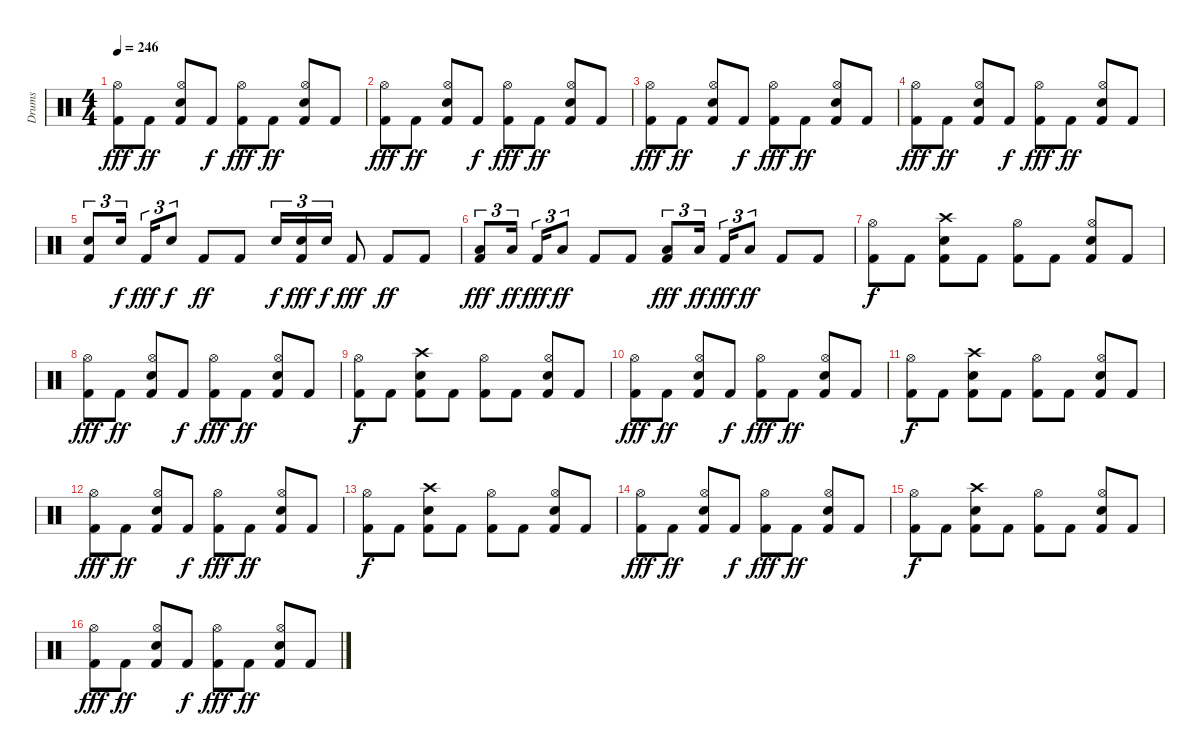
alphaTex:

\track ("Drums" "Drums") {instrument percussion}
\staff {score}
\articulation defaults
\ts (4 4)
\tempo 246
\clef neutral
\ks c
("Kick (hit) 2" "Hi-Hat (open)").8{dy fff volume 12} "Kick (hit) 2".8{dy ff} ("Kick (hit) 2" "Snare (hit) 2" "Hi-Hat (open)").8 "Kick (hit) 2".8{dy f} ("Kick (hit) 2" "Hi-Hat (open)").8{dy fff} "Kick (hit) 2".8{dy ff} ("Kick (hit) 2" "Snare (hit) 2" "Hi-Hat (open)").8 "Kick (hit) 2".8 |
("Kick (hit) 2" "Hi-Hat (open)").8{dy fff volume 12} "Kick (hit) 2".8{dy ff} ("Kick (hit) 2" "Snare (hit) 2" "Hi-Hat (open)").8 "Kick (hit) 2".8{dy f} ("Kick (hit) 2" "Hi-Hat (open)").8{dy fff} "Kick (hit) 2".8{dy ff} ("Kick (hit) 2" "Snare (hit) 2" "Hi-Hat (open)").8 "Kick (hit) 2".8 |
("Kick (hit) 2" "Hi-Hat (open)").8{dy fff volume 12} "Kick (hit) 2".8{dy ff} ("Kick (hit) 2" "Snare (hit) 2" "Hi-Hat (open)").8 "Kick (hit) 2".8{dy f} ("Kick (hit) 2" "Hi-Hat (open)").8{dy fff} "Kick (hit) 2".8{dy ff} ("Kick (hit) 2" "Snare (hit) 2" "Hi-Hat (open)").8 "Kick (hit) 2".8 |
("Kick (hit) 2" "Hi-Hat (open)").8{dy fff volume 12} "Kick (hit) 2".8{dy ff} ("Kick (hit) 2" "Snare (hit) 2" "Hi-Hat (open)").8 "Kick (hit) 2".8{dy f} ("Kick (hit) 2" "Hi-Hat (open)").8{dy fff} "Kick (hit) 2".8{dy ff} ("Kick (hit) 2" "Snare (hit) 2" "Hi-Hat (open)").8 "Kick (hit) 2".8 |
("Kick (hit) 2" "Snare (hit) 2").8{tu (3 2) volume 12} "Snare (hit) 2".16{tu (3 2) dy f} "Kick (hit) 2".16{tu (3 2) dy fff} "Snare (hit) 2".8{tu (3 2) dy f} "Kick (hit) 2".8{dy ff} "Kick (hit) 2".8 "Snare (hit) 2".16{tu (3 2) dy f} ("Kick (hit) 2" "Snare (hit) 2").16{tu (3 2) dy fff} "Snare (hit) 2".16{tu (3 2) dy f} "Kick (hit) 2".8{dy fff} "Kick (hit) 2".8{dy ff} "Kick (hit) 2".8 |
("Kick (hit) 2" "Low Tom (hit)").8{tu (3 2) dy fff volume 12} "Low Tom (hit)".16{tu (3 2) dy ff} "Kick (hit) 2".16{tu (3 2) dy fff} "Low Tom (hit)".8{tu (3 2) dy ff} "Kick (hit) 2".8 "Kick (hit) 2".8 ("Kick (hit) 2" "Low Floor Tom (hit)").8{tu (3 2) dy fff} "Low Floor Tom (hit)".16{tu (3 2) dy ff} "Kick (hit) 2".16{tu (3 2) dy fff} "Low Floor Tom (hit)".8{tu (3 2) dy ff} "Kick (hit) 2".8 "Kick (hit) 2".8 |
("Kick (hit) 2" "Hi-Hat (open)").8{dy f volume 12} "Kick (hit) 2".8 ("Kick (hit) 2" "Snare (hit) 2" "Crash high (hit)").8 "Kick (hit) 2".8 ("Kick (hit) 2" "Hi-Hat (open)").8 "Kick (hit) 2".8 ("Kick (hit) 2" "Snare (hit) 2" "Hi-Hat (open)").8 "Kick (hit) 2".8 |
("Kick (hit) 2" "Hi-Hat (open)").8{dy fff volume 12} "Kick (hit) 2".8{dy ff} ("Kick (hit) 2" "Snare (hit) 2" "Hi-Hat (open)").8 "Kick (hit) 2".8{dy f} ("Kick (hit) 2" "Hi-Hat (open)").8{dy fff} "Kick (hit) 2".8{dy ff} ("Kick (hit) 2" "Snare (hit) 2" "Hi-Hat (open)").8 "Kick (hit) 2".8 |
("Kick (hit) 2" "Hi-Hat (open)").8{dy f volume 12} "Kick (hit) 2".8 ("Kick (hit) 2" "Snare (hit) 2" "Crash high (hit)").8 "Kick (hit) 2".8 ("Kick (hit) 2" "Hi-Hat (open)").8 "Kick (hit) 2".8 ("Kick (hit) 2" "Snare (hit) 2" "Hi-Hat (open)").8 "Kick (hit) 2".8 |
("Kick (hit) 2" "Hi-Hat (open)").8{dy fff volume 12} "Kick (hit) 2".8{dy ff} ("Kick (hit) 2" "Snare (hit) 2" "Hi-Hat (open)").8 "Kick (hit) 2".8{dy f} ("Kick (hit) 2" "Hi-Hat (open)").8{dy fff} "Kick (hit) 2".8{dy ff} ("Kick (hit) 2" "Snare (hit) 2" "Hi-Hat (open)").8 "Kick (hit) 2".8 |
("Kick (hit) 2" "Hi-Hat (open)").8{dy f volume 12} "Kick (hit) 2".8 ("Kick (hit) 2" "Snare (hit) 2" "Crash high (hit)").8 "Kick (hit) 2".8 ("Kick (hit) 2" "Hi-Hat (open)").8 "Kick (hit) 2".8 ("Kick (hit) 2" "Snare (hit) 2" "Hi-Hat (open)").8 "Kick (hit) 2".8 |
("Kick (hit) 2" "Hi-Hat (open)").8{dy fff volume 12} "Kick (hit) 2".8{dy ff} ("Kick (hit) 2" "Snare (hit) 2" "Hi-Hat (open)").8 "Kick (hit) 2".8{dy f} ("Kick (hit) 2" "Hi-Hat (open)").8{dy fff} "Kick (hit) 2".8{dy ff} ("Kick (hit) 2" "Snare (hit) 2" "Hi-Hat (open)").8 "Kick (hit) 2".8 |
("Kick (hit) 2" "Hi-Hat (open)").8{dy f volume 12} "Kick (hit) 2".8 ("Kick (hit) 2" "Snare (hit) 2" "Crash high (hit)").8 "Kick (hit) 2".8 ("Kick (hit) 2" "Hi-Hat (open)").8 "Kick (hit) 2".8 ("Kick (hit) 2" "Snare (hit) 2" "Hi-Hat (open)").8 "Kick (hit) 2".8 |
("Kick (hit) 2" "Hi-Hat (open)").8{dy fff volume 12} "Kick (hit) 2".8{dy ff} ("Kick (hit) 2" "Snare (hit) 2" "Hi-Hat (open)").8 "Kick (hit) 2".8{dy f} ("Kick (hit) 2" "Hi-Hat (open)").8{dy fff} "Kick (hit) 2".8{dy ff} ("Kick (hit) 2" "Snare (hit) 2" "Hi-Hat (open)").8 "Kick (hit) 2".8 |
("Kick (hit) 2" "Hi-Hat (open)").8{dy f volume 12} "Kick (hit) 2".8 ("Kick (hit) 2" "Snare (hit) 2" "Crash high (hit)").8 "Kick (hit) 2".8 ("Kick (hit) 2" "Hi-Hat (open)").8 "Kick (hit) 2".8 ("Kick (hit) 2" "Snare (hit) 2" "Hi-Hat (open)").8 "Kick (hit) 2".8 |
("Kick (hit) 2" "Hi-Hat (open)").8{dy fff volume 12} "Kick (hit) 2".8{dy ff} ("Kick (hit) 2" "Snare (hit) 2" "Hi-Hat (open)").8 "Kick (hit) 2".8{dy f} ("Kick (hit) 2" "Hi-Hat (open)").8{dy fff} "Kick (hit) 2".8{dy ff} ("Kick (hit) 2" "Snare (hit) 2" "Hi-Hat (open)").8 "Kick (hit) 2".8
